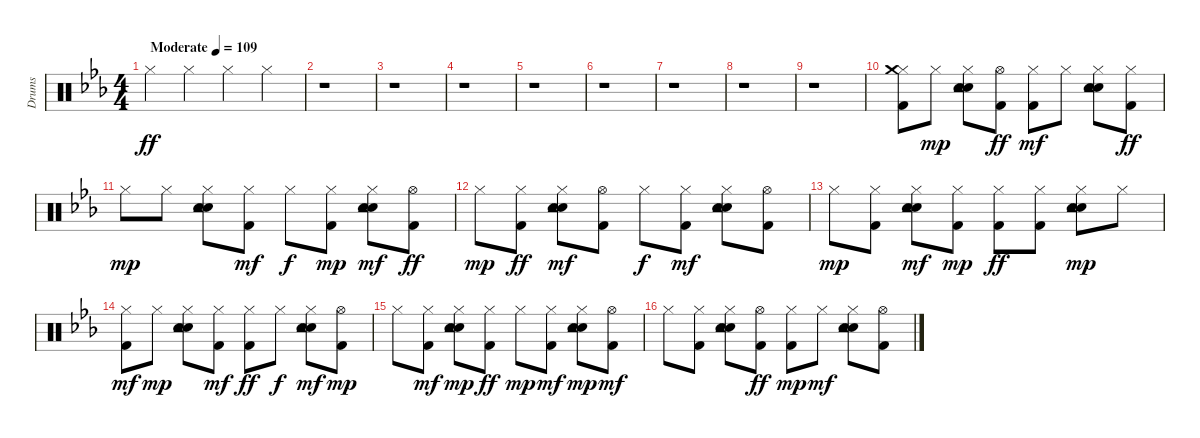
\track ("Drums" "Drums") {instrument percussion}
\staff {score}
\articulation defaults
\ts (4 4)
\tempo (109 "Moderate")
\clef neutral
\ks eb "Hi-Hat (closed)".4{dy ff} "Hi-Hat (closed)".4 "Hi-Hat (closed)".4 "Hi-Hat (closed)".4
|
r.1 |
r.1 |
r.1 |
r.1 |
r.1 |
r.1 |
r.1 |
r.1 |
("Kick (hit) 2" "Hi-Hat (closed)" "Crash medium (hit)").8 "Hi-Hat (closed)".8{dy mp} ("Hand Clap (hit)" "Electric Snare (hit)" "Hi-Hat (closed)" "Tambourine (hit)").8 ("Kick (hit) 2" "Hi-Hat (open)").8{dy ff} ("Kick (hit) 2" "Hi-Hat (closed)").8{dy mf} "Hi-Hat (closed)".8 ("Hand Clap (hit)" "Electric Snare (hit)" "Hi-Hat (closed)" "Tambourine (hit)").8 ("Kick (hit) 2" "Hi-Hat (closed)").8{dy ff} |
"Hi-Hat (closed)".8{dy mp} "Hi-Hat (closed)".8 ("Hand Clap (hit)" "Electric Snare (hit)" "Hi-Hat (closed)" "Tambourine (hit)").8 ("Kick (hit) 2" "Hi-Hat (closed)").8{dy mf} "Hi-Hat (closed)".8{dy f} ("Kick (hit) 2" "Hi-Hat (closed)").8{dy mp} ("Hand Clap (hit)" "Electric Snare (hit)" "Hi-Hat (closed)" "Tambourine (hit)").8{dy mf} ("Kick (hit) 2" "Hi-Hat (open)").8{dy ff} |
"Hi-Hat (closed)".8{dy mp} ("Kick (hit) 2" "Hi-Hat (closed)").8{dy ff} ("Hand Clap (hit)" "Electric Snare (hit)" "Hi-Hat (closed)" "Tambourine (hit)").8{dy mf} ("Kick (hit) 2" "Hi-Hat (open)").8 "Hi-Hat (closed)".8{dy f} ("Kick (hit) 2" "Hi-Hat (closed)").8{dy mf} ("Hand Clap (hit)" "Electric Snare (hit)" "Hi-Hat (closed)" "Tambourine (hit)").8 ("Kick (hit) 2" "Hi-Hat (open)").8 |
"Hi-Hat (closed)".8{dy mp} ("Kick (hit) 2" "Hi-Hat (closed)").8 ("Hand Clap (hit)" "Electric Snare (hit)" "Hi-Hat (closed)" "Tambourine (hit)").8{dy mf} ("Kick (hit) 2" "Hi-Hat (closed)").8{dy mp} ("Kick (hit) 2" "Hi-Hat (closed)").8{dy ff} ("Kick (hit) 2" "Hi-Hat (closed)").8 ("Hand Clap (hit)" "Electric Snare (hit)" "Hi-Hat (closed)" "Tambourine (hit)").8{dy mp} "Hi-Hat (closed)".8 |
("Kick (hit) 2" "Hi-Hat (closed)").8{dy mf} "Hi-Hat (closed)".8{dy mp} ("Hand Clap (hit)" "Electric Snare (hit)" "Hi-Hat (closed)" "Tambourine (hit)").8 ("Kick (hit) 2" "Hi-Hat (closed)").8{dy mf} ("Kick (hit) 2" "Hi-Hat (closed)").8{dy ff} "Hi-Hat (closed)".8{dy f} ("Hand Clap (hit)" "Electric Snare (hit)" "Hi-Hat (closed)" "Tambourine (hit)").8{dy mf} ("Kick (hit) 2" "Hi-Hat (open)").8{dy mp} |
"Hi-Hat (closed)".8 ("Kick (hit) 2" "Hi-Hat (closed)").8{dy mf} ("Hand Clap (hit)" "Electric Snare (hit)" "Hi-Hat (closed)" "Tambourine (hit)").8{dy mp} ("Kick (hit) 2" "Hi-Hat (closed)").8{dy ff} "Hi-Hat (closed)".8{dy mp} ("Kick (hit) 2" "Hi-Hat (closed)").8{dy mf} ("Hand Clap (hit)" "Electric Snare (hit)" "Hi-Hat (closed)" "Tambourine (hit)").8{dy mp} ("Kick (hit) 2" "Hi-Hat (open)").8{dy mf} |
"Hi-Hat (closed)".8 ("Kick (hit) 2" "Hi-Hat (closed)").8 ("Hand Clap (hit)" "Electric Snare (hit)" "Hi-Hat (closed)" "Tambourine (hit)").8 ("Kick (hit) 2" "Hi-Hat (open)").8{dy ff} ("Kick (hit) 2" "Hi-Hat (closed)").8{dy mp} "Hi-Hat (closed)".8{dy mf} ("Hand Clap (hit)" "Electric Snare (hit)" "Hi-Hat (closed)" "Tambourine (hit)").8 ("Kick (hit) 2" "Hi-Hat (open)").8
